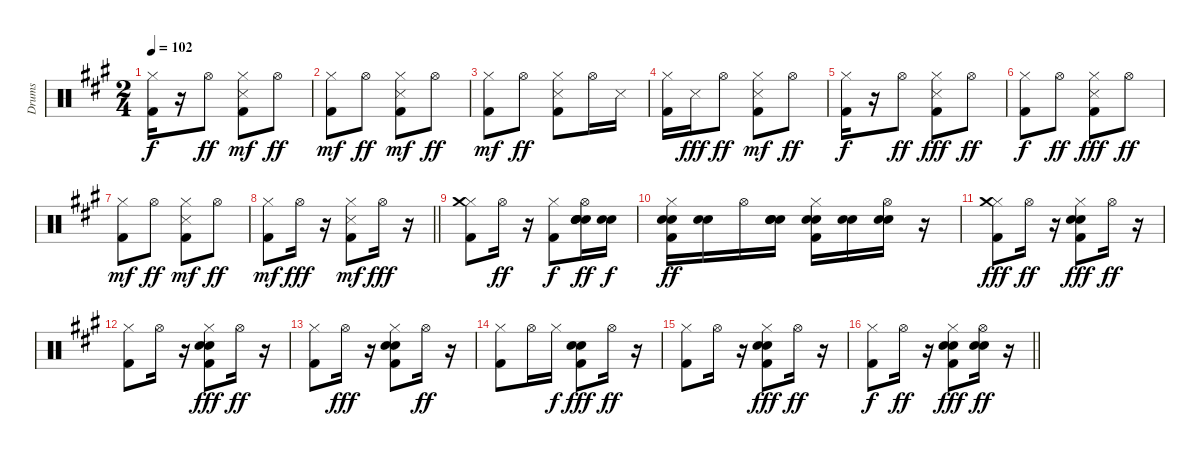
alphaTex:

\track ("Drums" "Drums") {instrument percussion}
\staff {score}
\articulation defaults
\ts (2 4)
\tempo 102
\clef neutral
\ks a
("Kick (hit) 2" "Hi-Hat (closed)").16{dy f} r.16 "Hi-Hat (open)".8{dy ff} ("Kick (hit) 2" "Snare (side stick) 3" "Hi-Hat (closed)").8{dy mf} "Hi-Hat (open)".8{dy ff} |
("Kick (hit) 2" "Hi-Hat (closed)").8{dy mf} "Hi-Hat (open)".8{dy ff} ("Kick (hit) 2" "Snare (side stick) 3" "Hi-Hat (closed)").8{dy mf} "Hi-Hat (open)".8{dy ff} |
("Kick (hit) 2" "Hi-Hat (closed)").8{dy mf} "Hi-Hat (open)".8{dy ff} ("Kick (hit) 2" "Snare (side stick) 3" "Hi-Hat (closed)").8 "Hi-Hat (open)".16 "Snare (side stick) 3".16 |
("Kick (hit) 2" "Hi-Hat (closed)").16 "Snare (side stick) 3".16{dy fff} "Hi-Hat (open)".8{dy ff} ("Kick (hit) 2" "Snare (side stick) 3" "Hi-Hat (closed)").8{dy mf} "Hi-Hat (open)".8{dy ff} |
("Kick (hit) 2" "Hi-Hat (closed)").16{dy f} r.16 "Hi-Hat (open)".8{dy ff} ("Kick (hit) 2" "Snare (side stick) 3" "Hi-Hat (closed)").8{dy fff} "Hi-Hat (open)".8{dy ff} |
("Kick (hit) 2" "Hi-Hat (closed)").8{dy f} "Hi-Hat (open)".8{dy ff} ("Kick (hit) 2" "Snare (side stick) 3" "Hi-Hat (closed)").8{dy fff} "Hi-Hat (open)".8{dy ff} |
("Kick (hit) 2" "Hi-Hat (closed)").8{dy mf} "Hi-Hat (open)".8{dy ff} ("Kick (hit) 2" "Snare (side stick) 3" "Hi-Hat (closed)").8{dy mf} "Hi-Hat (open)".8{dy ff} |
\barLineRight lightlight
("Kick (hit) 2" "Hi-Hat (closed)").8{dy mf} "Hi-Hat (open)".16{dy fff} r.16 ("Kick (hit) 2" "Snare (side stick) 3" "Hi-Hat (closed)").8{dy mf} "Hi-Hat (open)".16{dy fff} r.16 |
("Kick (hit) 2" "Hi-Hat (closed)" "Crash medium (hit)").8 "Hi-Hat (open)".16{dy ff} r.16 ("Kick (hit) 2" "Hi-Hat (closed)").8{dy f} ("Metronome (bell)" "Metronome (bell)" "Electric Snare (hit)" "Electric Snare (hit)" "Hi-Hat (open)").16{dy ff} ("Metronome (bell)" "Electric Snare (hit)").16{dy f} |
("Metronome (bell)" "Kick (hit) 2" "Electric Snare (hit)" "Hi-Hat (closed)").16{dy ff} ("Metronome (bell)" "Electric Snare (hit)").16 "Hi-Hat (open)".16 ("Metronome (bell)" "Metronome (bell)" "Electric Snare (hit)" "Electric Snare (hit)").16 ("Metronome (bell)" "Kick (hit) 2" "Electric Snare (hit)" "Hi-Hat (closed)").16 ("Metronome (bell)" "Electric Snare (hit)").16 ("Metronome (bell)" "Electric Snare (hit)" "Hi-Hat (open)").16 r.16 |
("Kick (hit) 2" "Hi-Hat (closed)" "Crash medium (hit)").8{dy fff} "Hi-Hat (open)".16{dy ff} r.16 ("Kick (hit) 2" "Metronome (bell)" "Electric Snare (hit)" "Hi-Hat (closed)").8{dy fff} "Hi-Hat (open)".16{dy ff} r.16 |
("Kick (hit) 2" "Hi-Hat (closed)").8 "Hi-Hat (open)".16 r.16 ("Kick (hit) 2" "Metronome (bell)" "Electric Snare (hit)" "Hi-Hat (closed)").8{dy fff} "Hi-Hat (open)".16{dy ff} r.16 |
("Kick (hit) 2" "Hi-Hat (closed)").8 "Hi-Hat (open)".16{dy fff} r.16 ("Kick (hit) 2" "Metronome (bell)" "Electric Snare (hit)" "Hi-Hat (closed)").8 "Hi-Hat (open)".16{dy ff} r.16 |
("Kick (hit) 2" "Hi-Hat (closed)").8 "Hi-Hat (open)".16 "Hi-Hat (closed)".16{dy f} ("Kick (hit) 2" "Metronome (bell)" "Electric Snare (hit)").8{dy fff} "Hi-Hat (open)".16{dy ff} r.16 |
("Kick (hit) 2" "Hi-Hat (closed)").8 "Hi-Hat (open)".16 r.16 ("Kick (hit) 2" "Metronome (bell)" "Electric Snare (hit)" "Hi-Hat (closed)").8{dy fff} "Hi-Hat (open)".16{dy ff} r.16 |
\barLineRight lightlight
("Kick (hit) 2" "Hi-Hat (closed)").8{dy f} "Hi-Hat (open)".16{dy ff} r.16 ("Kick (hit) 2" "Metronome (bell)" "Electric Snare (hit)" "Hi-Hat (closed)").8{dy fff} ("Metronome (bell)" "Electric Snare (hit)" "Hi-Hat (open)").16{dy ff} r.16
